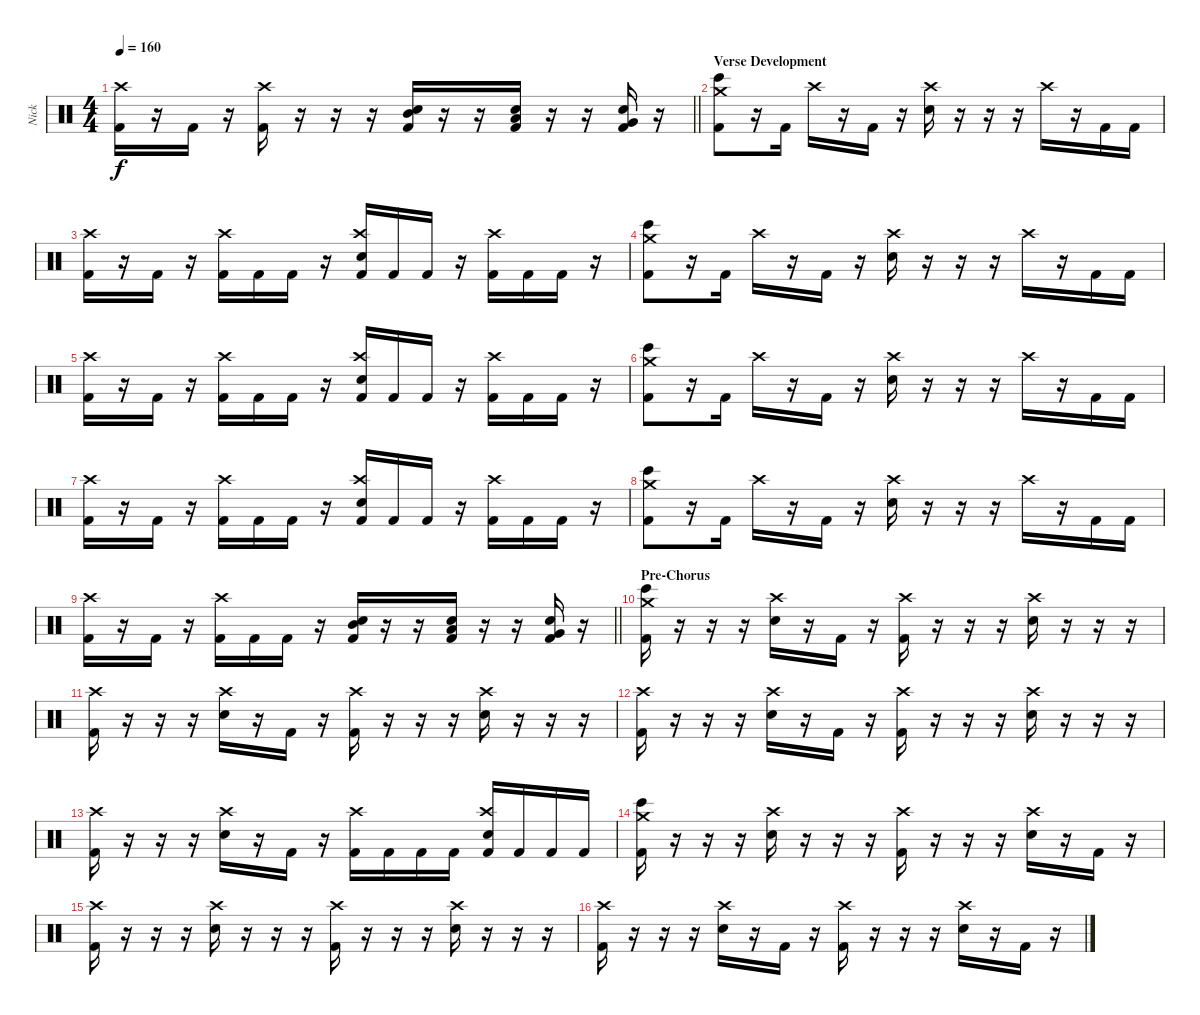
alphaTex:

\track ("Nick" "Nick") {instrument percussion}
\staff {score}
\articulation defaults
\ts (4 4)
\tempo 160
\clef neutral
\barLineRight lightlight
\ks c
("Kick (hit) 2" "Crash high (hit)").16{dy f} r.16 "Kick (hit) 2".16 r.16 ("Kick (hit) 2" "Crash high (hit)").16 r.16 r.16 r.16 ("Kick (hit) 2" "Electric Snare (hit)" "Mid Tom (hit)").16 r.16 r.16 ("Kick (hit) 2" "Electric Snare (hit)" "Low Tom (hit)").16 r.16 r.16 ("Kick (hit) 2" "Electric Snare (hit)" "Very Low Tom (hit)").16 r.16 |
\section ("" "Verse Development")
("Kick (hit) 2" "Bongo High (hit)" "Crash medium (hit)").8 r.16 "Kick (hit) 2".16 "Crash high (hit)".16 r.16 "Kick (hit) 2".16 r.16 ("Electric Snare (hit)" "Crash high (hit)").16 r.16 r.16 r.16 "Crash high (hit)".16 r.16 "Kick (hit) 2".16 "Kick (hit) 2".16 |
("Kick (hit) 2" "Crash high (hit)").16 r.16 "Kick (hit) 2".16 r.16 ("Kick (hit) 2" "Crash high (hit)").16 "Kick (hit) 2".16 "Kick (hit) 2".16 r.16 ("Kick (hit) 2" "Electric Snare (hit)" "Crash high (hit)").16 "Kick (hit) 2".16 "Kick (hit) 2".16 r.16 ("Kick (hit) 2" "Crash high (hit)").16 "Kick (hit) 2".16 "Kick (hit) 2".16 r.16 |
("Kick (hit) 2" "Bongo High (hit)" "Crash medium (hit)").8 r.16 "Kick (hit) 2".16 "Crash high (hit)".16 r.16 "Kick (hit) 2".16 r.16 ("Electric Snare (hit)" "Crash high (hit)").16 r.16 r.16 r.16 "Crash high (hit)".16 r.16 "Kick (hit) 2".16 "Kick (hit) 2".16 |
("Kick (hit) 2" "Crash high (hit)").16 r.16 "Kick (hit) 2".16 r.16 ("Kick (hit) 2" "Crash high (hit)").16 "Kick (hit) 2".16 "Kick (hit) 2".16 r.16 ("Kick (hit) 2" "Electric Snare (hit)" "Crash high (hit)").16 "Kick (hit) 2".16 "Kick (hit) 2".16 r.16 ("Kick (hit) 2" "Crash high (hit)").16 "Kick (hit) 2".16 "Kick (hit) 2".16 r.16 |
("Kick (hit) 2" "Bongo High (hit)" "Crash medium (hit)").8 r.16 "Kick (hit) 2".16 "Crash high (hit)".16 r.16 "Kick (hit) 2".16 r.16 ("Electric Snare (hit)" "Crash high (hit)").16 r.16 r.16 r.16 "Crash high (hit)".16 r.16 "Kick (hit) 2".16 "Kick (hit) 2".16 |
("Kick (hit) 2" "Crash high (hit)").16 r.16 "Kick (hit) 2".16 r.16 ("Kick (hit) 2" "Crash high (hit)").16 "Kick (hit) 2".16 "Kick (hit) 2".16 r.16 ("Kick (hit) 2" "Electric Snare (hit)" "Crash high (hit)").16 "Kick (hit) 2".16 "Kick (hit) 2".16 r.16 ("Kick (hit) 2" "Crash high (hit)").16 "Kick (hit) 2".16 "Kick (hit) 2".16 r.16 |
("Kick (hit) 2" "Bongo High (hit)" "Crash medium (hit)").8 r.16 "Kick (hit) 2".16 "Crash high (hit)".16 r.16 "Kick (hit) 2".16 r.16 ("Electric Snare (hit)" "Crash high (hit)").16 r.16 r.16 r.16 "Crash high (hit)".16 r.16 "Kick (hit) 2".16 "Kick (hit) 2".16 |
\barLineRight lightlight
("Kick (hit) 2" "Crash high (hit)").16 r.16 "Kick (hit) 2".16 r.16 ("Kick (hit) 2" "Crash high (hit)").16 "Kick (hit) 2".16 "Kick (hit) 2".16 r.16 ("Kick (hit) 2" "Electric Snare (hit)" "Mid Tom (hit)").16 r.16 r.16 ("Kick (hit) 2" "Electric Snare (hit)" "Low Tom (hit)").16 r.16 r.16 ("Kick (hit) 2" "Electric Snare (hit)" "Very Low Tom (hit)").16 r.16 |
\section ("" "Pre-Chorus")
("Kick (hit) 2" "Bongo High (hit)" "Crash medium (hit)").16 r.16 r.16 r.16 ("Electric Snare (hit)" "Crash high (hit)").16 r.16 "Kick (hit) 2".16 r.16 ("Kick (hit) 2" "Crash high (hit)").16 r.16 r.16 r.16 ("Electric Snare (hit)" "Crash high (hit)").16 r.16 r.16 r.16 |
("Kick (hit) 2" "Crash high (hit)").16 r.16 r.16 r.16 ("Electric Snare (hit)" "Crash high (hit)").16 r.16 "Kick (hit) 2".16 r.16 ("Kick (hit) 2" "Crash high (hit)").16 r.16 r.16 r.16 ("Electric Snare (hit)" "Crash high (hit)").16 r.16 r.16 r.16 |
("Kick (hit) 2" "Crash high (hit)").16 r.16 r.16 r.16 ("Electric Snare (hit)" "Crash high (hit)").16 r.16 "Kick (hit) 2".16 r.16 ("Kick (hit) 2" "Crash high (hit)").16 r.16 r.16 r.16 ("Electric Snare (hit)" "Crash high (hit)").16 r.16 r.16 r.16 |
("Kick (hit) 2" "Crash high (hit)").16 r.16 r.16 r.16 ("Electric Snare (hit)" "Crash high (hit)").16 r.16 "Kick (hit) 2".16 r.16 ("Kick (hit) 2" "Crash high (hit)").16 "Kick (hit) 2".16 "Kick (hit) 2".16 "Kick (hit) 2".16 ("Kick (hit) 2" "Electric Snare (hit)" "Crash high (hit)").16 "Kick (hit) 2".16 "Kick (hit) 2".16 "Kick (hit) 2".16 |
("Kick (hit) 2" "Bongo High (hit)" "Crash medium (hit)").16 r.16 r.16 r.16 ("Electric Snare (hit)" "Crash high (hit)").16 r.16 r.16 r.16 ("Kick (hit) 2" "Crash high (hit)").16 r.16 r.16 r.16 ("Electric Snare (hit)" "Crash high (hit)").16 r.16 "Kick (hit) 2".16 r.16 |
("Kick (hit) 2" "Crash high (hit)").16 r.16 r.16 r.16 ("Electric Snare (hit)" "Crash high (hit)").16 r.16 r.16 r.16 ("Kick (hit) 2" "Crash high (hit)").16 r.16 r.16 r.16 ("Electric Snare (hit)" "Crash high (hit)").16 r.16 r.16 r.16 |
("Kick (hit) 2" "Crash high (hit)").16 r.16 r.16 r.16 ("Electric Snare (hit)" "Crash high (hit)").16 r.16 "Kick (hit) 2".16 r.16 ("Kick (hit) 2" "Crash high (hit)").16 r.16 r.16 r.16 ("Electric Snare (hit)" "Crash high (hit)").16 r.16 "Kick (hit) 2".16 r.16
